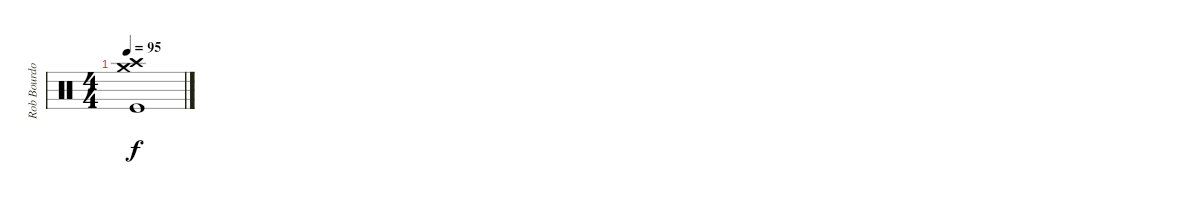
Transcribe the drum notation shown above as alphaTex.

\track ("Rob Bourdon" "Rob Bourdo") {instrument percussion}
\staff {score}
\articulation defaults
\ts (4 4)
\tempo 95
\clef neutral
\ks c
("Crash high (hit)" "Crash medium (hit)" "Kick (hit)").1{dy f}
